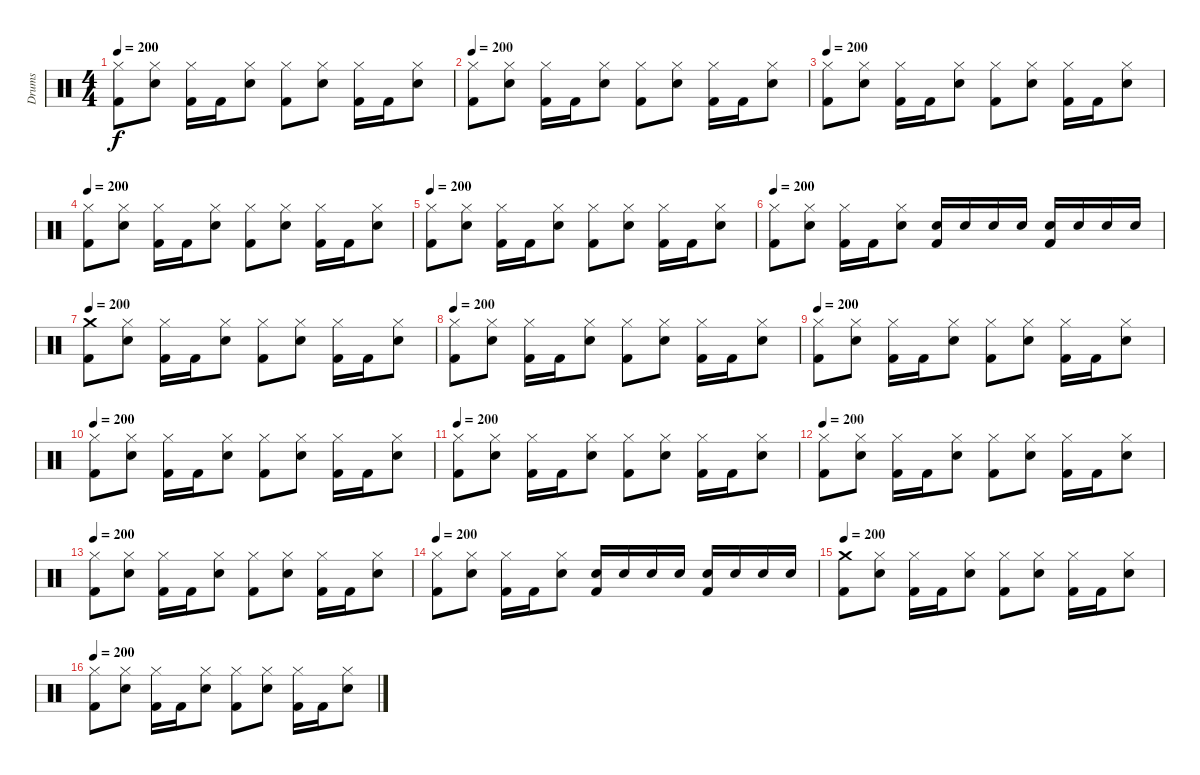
\track ("Drums" "Drums") {instrument percussion}
\staff {score}
\articulation defaults
\ts (4 4)
\tempo 200
\clef neutral
\ks c
("Hi-Hat (closed)" "Kick (hit) 2").8{dy f} ("Hi-Hat (closed)" "Snare (hit) 2").8 ("Hi-Hat (closed)" "Kick (hit) 2").16 "Kick (hit) 2".16 ("Hi-Hat (closed)" "Snare (hit) 2").8 ("Hi-Hat (closed)" "Kick (hit) 2").8 ("Hi-Hat (closed)" "Snare (hit) 2").8 ("Hi-Hat (closed)" "Kick (hit) 2").16 "Kick (hit) 2".16 ("Hi-Hat (closed)" "Snare (hit) 2").8 |
\tempo 200
("Hi-Hat (closed)" "Kick (hit) 2").8 ("Hi-Hat (closed)" "Snare (hit) 2").8 ("Hi-Hat (closed)" "Kick (hit) 2").16 "Kick (hit) 2".16 ("Hi-Hat (closed)" "Snare (hit) 2").8 ("Hi-Hat (closed)" "Kick (hit) 2").8 ("Hi-Hat (closed)" "Snare (hit) 2").8 ("Hi-Hat (closed)" "Kick (hit) 2").16 "Kick (hit) 2".16 ("Hi-Hat (closed)" "Snare (hit) 2").8 |
\tempo 200
("Hi-Hat (closed)" "Kick (hit) 2").8 ("Hi-Hat (closed)" "Snare (hit) 2").8 ("Hi-Hat (closed)" "Kick (hit) 2").16 "Kick (hit) 2".16 ("Hi-Hat (closed)" "Snare (hit) 2").8 ("Hi-Hat (closed)" "Kick (hit) 2").8 ("Hi-Hat (closed)" "Snare (hit) 2").8 ("Hi-Hat (closed)" "Kick (hit) 2").16 "Kick (hit) 2".16 ("Hi-Hat (closed)" "Snare (hit) 2").8 |
\tempo 200
("Hi-Hat (closed)" "Kick (hit) 2").8 ("Hi-Hat (closed)" "Snare (hit) 2").8 ("Hi-Hat (closed)" "Kick (hit) 2").16 "Kick (hit) 2".16 ("Hi-Hat (closed)" "Snare (hit) 2").8 ("Hi-Hat (closed)" "Kick (hit) 2").8 ("Hi-Hat (closed)" "Snare (hit) 2").8 ("Hi-Hat (closed)" "Kick (hit) 2").16 "Kick (hit) 2".16 ("Hi-Hat (closed)" "Snare (hit) 2").8 |
\tempo 200
("Hi-Hat (closed)" "Kick (hit) 2").8 ("Hi-Hat (closed)" "Snare (hit) 2").8 ("Hi-Hat (closed)" "Kick (hit) 2").16 "Kick (hit) 2".16 ("Hi-Hat (closed)" "Snare (hit) 2").8 ("Hi-Hat (closed)" "Kick (hit) 2").8 ("Hi-Hat (closed)" "Snare (hit) 2").8 ("Hi-Hat (closed)" "Kick (hit) 2").16 "Kick (hit) 2".16 ("Hi-Hat (closed)" "Snare (hit) 2").8 |
\tempo 200
("Hi-Hat (closed)" "Kick (hit) 2").8 ("Hi-Hat (closed)" "Snare (hit) 2").8 ("Hi-Hat (closed)" "Kick (hit) 2").16 "Kick (hit) 2".16 ("Hi-Hat (closed)" "Snare (hit) 2").8 ("Snare (hit) 2" "Kick (hit) 2").16 "Snare (hit) 2".16 "Snare (hit) 2".16 "Snare (hit) 2".16 ("Snare (hit) 2" "Kick (hit) 2").16 "Snare (hit) 2".16 "Snare (hit) 2".16 "Snare (hit) 2".16 |
\tempo 200
("Crash medium (hit)" "Kick (hit) 2").8 ("Hi-Hat (closed)" "Snare (hit) 2").8 ("Hi-Hat (closed)" "Kick (hit) 2").16 "Kick (hit) 2".16 ("Hi-Hat (closed)" "Snare (hit) 2").8 ("Hi-Hat (closed)" "Kick (hit) 2").8 ("Hi-Hat (closed)" "Snare (hit) 2").8 ("Hi-Hat (closed)" "Kick (hit) 2").16 "Kick (hit) 2".16 ("Hi-Hat (closed)" "Snare (hit) 2").8 |
\tempo 200
("Hi-Hat (closed)" "Kick (hit) 2").8 ("Hi-Hat (closed)" "Snare (hit) 2").8 ("Hi-Hat (closed)" "Kick (hit) 2").16 "Kick (hit) 2".16 ("Hi-Hat (closed)" "Snare (hit) 2").8 ("Hi-Hat (closed)" "Kick (hit) 2").8 ("Hi-Hat (closed)" "Snare (hit) 2").8 ("Hi-Hat (closed)" "Kick (hit) 2").16 "Kick (hit) 2".16 ("Hi-Hat (closed)" "Snare (hit) 2").8 |
\tempo 200
("Hi-Hat (closed)" "Kick (hit) 2").8 ("Hi-Hat (closed)" "Snare (hit) 2").8 ("Hi-Hat (closed)" "Kick (hit) 2").16 "Kick (hit) 2".16 ("Hi-Hat (closed)" "Snare (hit) 2").8 ("Hi-Hat (closed)" "Kick (hit) 2").8 ("Hi-Hat (closed)" "Snare (hit) 2").8 ("Hi-Hat (closed)" "Kick (hit) 2").16 "Kick (hit) 2".16 ("Hi-Hat (closed)" "Snare (hit) 2").8 |
\tempo 200
("Hi-Hat (closed)" "Kick (hit) 2").8 ("Hi-Hat (closed)" "Snare (hit) 2").8 ("Hi-Hat (closed)" "Kick (hit) 2").16 "Kick (hit) 2".16 ("Hi-Hat (closed)" "Snare (hit) 2").8 ("Hi-Hat (closed)" "Kick (hit) 2").8 ("Hi-Hat (closed)" "Snare (hit) 2").8 ("Hi-Hat (closed)" "Kick (hit) 2").16 "Kick (hit) 2".16 ("Hi-Hat (closed)" "Snare (hit) 2").8 |
\tempo 200
("Hi-Hat (closed)" "Kick (hit) 2").8 ("Hi-Hat (closed)" "Snare (hit) 2").8 ("Hi-Hat (closed)" "Kick (hit) 2").16 "Kick (hit) 2".16 ("Hi-Hat (closed)" "Snare (hit) 2").8 ("Hi-Hat (closed)" "Kick (hit) 2").8 ("Hi-Hat (closed)" "Snare (hit) 2").8 ("Hi-Hat (closed)" "Kick (hit) 2").16 "Kick (hit) 2".16 ("Hi-Hat (closed)" "Snare (hit) 2").8 |
\tempo 200
("Hi-Hat (closed)" "Kick (hit) 2").8 ("Hi-Hat (closed)" "Snare (hit) 2").8 ("Hi-Hat (closed)" "Kick (hit) 2").16 "Kick (hit) 2".16 ("Hi-Hat (closed)" "Snare (hit) 2").8 ("Hi-Hat (closed)" "Kick (hit) 2").8 ("Hi-Hat (closed)" "Snare (hit) 2").8 ("Hi-Hat (closed)" "Kick (hit) 2").16 "Kick (hit) 2".16 ("Hi-Hat (closed)" "Snare (hit) 2").8 |
\tempo 200
("Hi-Hat (closed)" "Kick (hit) 2").8 ("Hi-Hat (closed)" "Snare (hit) 2").8 ("Hi-Hat (closed)" "Kick (hit) 2").16 "Kick (hit) 2".16 ("Hi-Hat (closed)" "Snare (hit) 2").8 ("Hi-Hat (closed)" "Kick (hit) 2").8 ("Hi-Hat (closed)" "Snare (hit) 2").8 ("Hi-Hat (closed)" "Kick (hit) 2").16 "Kick (hit) 2".16 ("Hi-Hat (closed)" "Snare (hit) 2").8 |
\tempo 200
("Hi-Hat (closed)" "Kick (hit) 2").8 ("Hi-Hat (closed)" "Snare (hit) 2").8 ("Hi-Hat (closed)" "Kick (hit) 2").16 "Kick (hit) 2".16 ("Hi-Hat (closed)" "Snare (hit) 2").8 ("Snare (hit) 2" "Kick (hit) 2").16 "Snare (hit) 2".16 "Snare (hit) 2".16 "Snare (hit) 2".16 ("Snare (hit) 2" "Kick (hit) 2").16 "Snare (hit) 2".16 "Snare (hit) 2".16 "Snare (hit) 2".16 |
\tempo 200
("Crash medium (hit)" "Kick (hit) 2").8 ("Hi-Hat (closed)" "Snare (hit) 2").8 ("Hi-Hat (closed)" "Kick (hit) 2").16 "Kick (hit) 2".16 ("Hi-Hat (closed)" "Snare (hit) 2").8 ("Hi-Hat (closed)" "Kick (hit) 2").8 ("Hi-Hat (closed)" "Snare (hit) 2").8 ("Hi-Hat (closed)" "Kick (hit) 2").16 "Kick (hit) 2".16 ("Hi-Hat (closed)" "Snare (hit) 2").8 |
\tempo 200
("Hi-Hat (closed)" "Kick (hit) 2").8 ("Hi-Hat (closed)" "Snare (hit) 2").8 ("Hi-Hat (closed)" "Kick (hit) 2").16 "Kick (hit) 2".16 ("Hi-Hat (closed)" "Snare (hit) 2").8 ("Hi-Hat (closed)" "Kick (hit) 2").8 ("Hi-Hat (closed)" "Snare (hit) 2").8 ("Hi-Hat (closed)" "Kick (hit) 2").16 "Kick (hit) 2".16 ("Hi-Hat (closed)" "Snare (hit) 2").8
